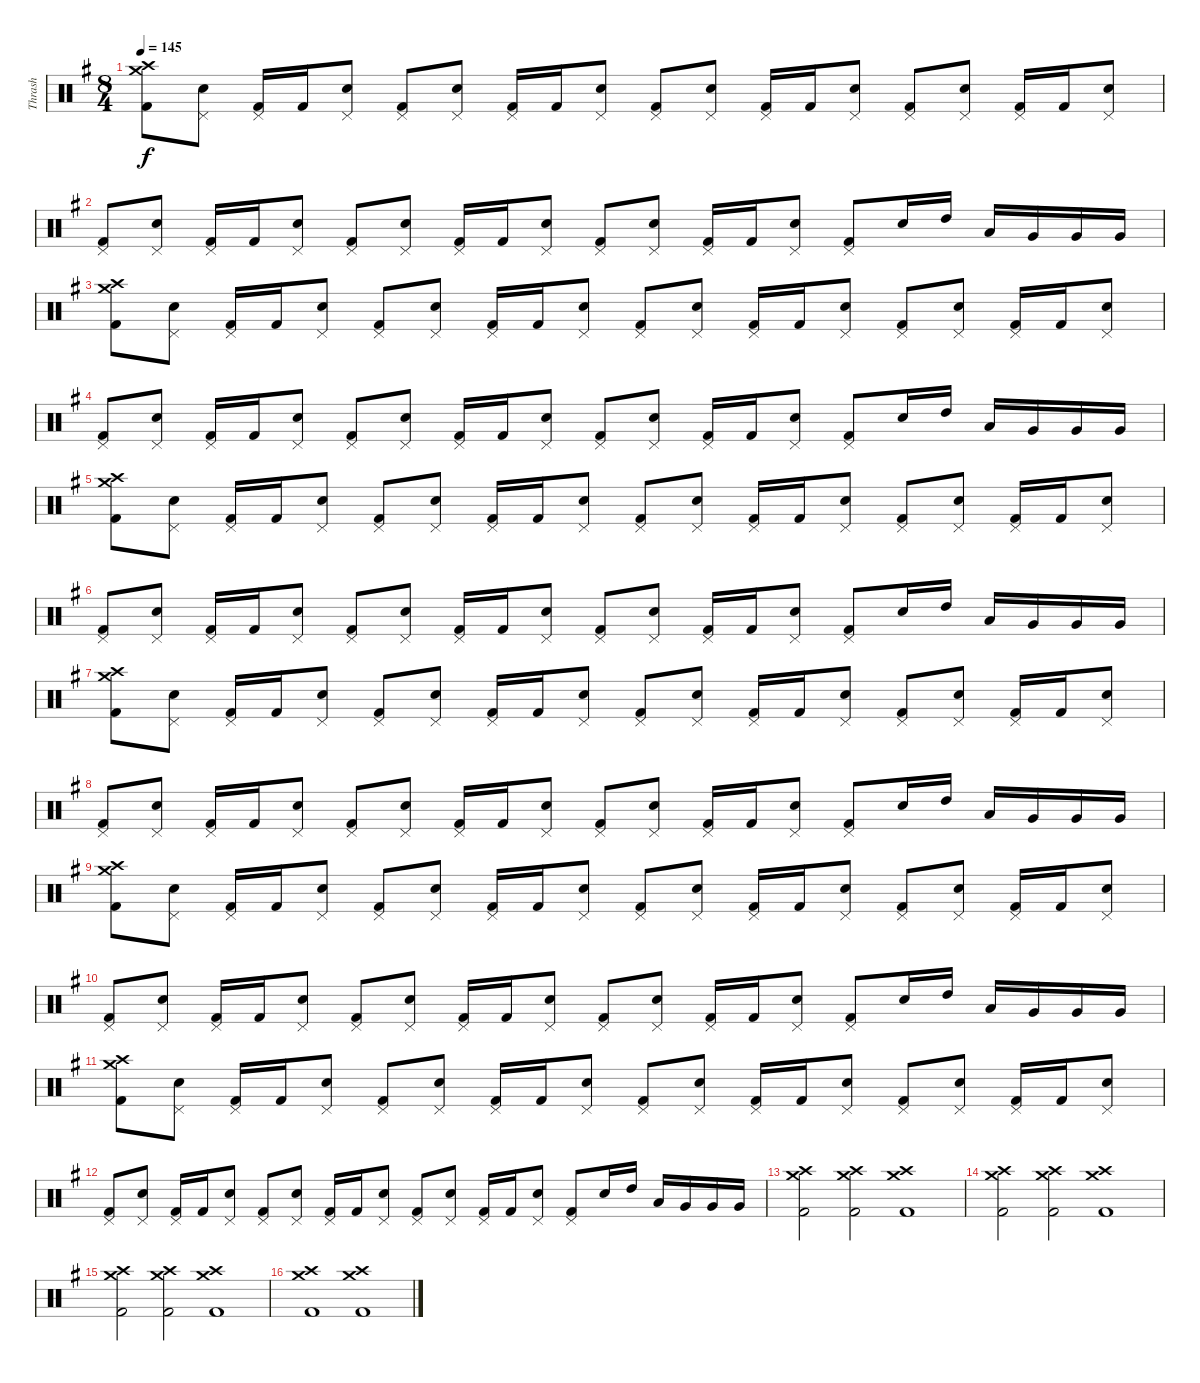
\track ("Thrash" "Thrash") {instrument percussion}
\staff {score}
\articulation defaults
\ts (8 4)
\tempo 145
\clef neutral
\ks eminor
("Crash medium (hit)" "Crash high (hit)" "Kick (hit) 2").8{dy f} ("Pedal Hi-Hat (hit)" "Snare (hit) 2").8 ("Pedal Hi-Hat (hit)" "Kick (hit) 2").16 "Kick (hit) 2".16 ("Pedal Hi-Hat (hit)" "Snare (hit) 2").8 ("Pedal Hi-Hat (hit)" "Kick (hit) 2").8 ("Pedal Hi-Hat (hit)" "Snare (hit) 2").8 ("Pedal Hi-Hat (hit)" "Kick (hit) 2").16 "Kick (hit) 2".16 ("Pedal Hi-Hat (hit)" "Snare (hit) 2").8 ("Pedal Hi-Hat (hit)" "Kick (hit) 2").8 ("Pedal Hi-Hat (hit)" "Snare (hit) 2").8 ("Pedal Hi-Hat (hit)" "Kick (hit) 2").16 "Kick (hit) 2".16 ("Pedal Hi-Hat (hit)" "Snare (hit) 2").8 ("Pedal Hi-Hat (hit)" "Kick (hit) 2").8 ("Pedal Hi-Hat (hit)" "Snare (hit) 2").8 ("Pedal Hi-Hat (hit)" "Kick (hit) 2").16 "Kick (hit) 2".16 ("Pedal Hi-Hat (hit)" "Snare (hit) 2").8 |
("Pedal Hi-Hat (hit)" "Kick (hit) 2").8 ("Pedal Hi-Hat (hit)" "Snare (hit) 2").8 ("Pedal Hi-Hat (hit)" "Kick (hit) 2").16 "Kick (hit) 2".16 ("Pedal Hi-Hat (hit)" "Snare (hit) 2").8 ("Pedal Hi-Hat (hit)" "Kick (hit) 2").8 ("Pedal Hi-Hat (hit)" "Snare (hit) 2").8 ("Pedal Hi-Hat (hit)" "Kick (hit) 2").16 "Kick (hit) 2".16 ("Pedal Hi-Hat (hit)" "Snare (hit) 2").8 ("Pedal Hi-Hat (hit)" "Kick (hit) 2").8 ("Pedal Hi-Hat (hit)" "Snare (hit) 2").8 ("Pedal Hi-Hat (hit)" "Kick (hit) 2").16 "Kick (hit) 2".16 ("Pedal Hi-Hat (hit)" "Snare (hit) 2").8 ("Pedal Hi-Hat (hit)" "Kick (hit) 2").8 "Snare (hit) 2".16 "High Tom (hit)".16 "Low Tom (hit)".16 "Very Low Tom (hit)".16 "Very Low Tom (hit)".16 "Very Low Tom (hit)".16 |
("Crash medium (hit)" "Crash high (hit)" "Kick (hit) 2").8 ("Pedal Hi-Hat (hit)" "Snare (hit) 2").8 ("Pedal Hi-Hat (hit)" "Kick (hit) 2").16 "Kick (hit) 2".16 ("Pedal Hi-Hat (hit)" "Snare (hit) 2").8 ("Pedal Hi-Hat (hit)" "Kick (hit) 2").8 ("Pedal Hi-Hat (hit)" "Snare (hit) 2").8 ("Pedal Hi-Hat (hit)" "Kick (hit) 2").16 "Kick (hit) 2".16 ("Pedal Hi-Hat (hit)" "Snare (hit) 2").8 ("Pedal Hi-Hat (hit)" "Kick (hit) 2").8 ("Pedal Hi-Hat (hit)" "Snare (hit) 2").8 ("Pedal Hi-Hat (hit)" "Kick (hit) 2").16 "Kick (hit) 2".16 ("Pedal Hi-Hat (hit)" "Snare (hit) 2").8 ("Pedal Hi-Hat (hit)" "Kick (hit) 2").8 ("Pedal Hi-Hat (hit)" "Snare (hit) 2").8 ("Pedal Hi-Hat (hit)" "Kick (hit) 2").16 "Kick (hit) 2".16 ("Pedal Hi-Hat (hit)" "Snare (hit) 2").8 |
("Pedal Hi-Hat (hit)" "Kick (hit) 2").8 ("Pedal Hi-Hat (hit)" "Snare (hit) 2").8 ("Pedal Hi-Hat (hit)" "Kick (hit) 2").16 "Kick (hit) 2".16 ("Pedal Hi-Hat (hit)" "Snare (hit) 2").8 ("Pedal Hi-Hat (hit)" "Kick (hit) 2").8 ("Pedal Hi-Hat (hit)" "Snare (hit) 2").8 ("Pedal Hi-Hat (hit)" "Kick (hit) 2").16 "Kick (hit) 2".16 ("Pedal Hi-Hat (hit)" "Snare (hit) 2").8 ("Pedal Hi-Hat (hit)" "Kick (hit) 2").8 ("Pedal Hi-Hat (hit)" "Snare (hit) 2").8 ("Pedal Hi-Hat (hit)" "Kick (hit) 2").16 "Kick (hit) 2".16 ("Pedal Hi-Hat (hit)" "Snare (hit) 2").8 ("Pedal Hi-Hat (hit)" "Kick (hit) 2").8 "Snare (hit) 2".16 "High Tom (hit)".16 "Low Tom (hit)".16 "Very Low Tom (hit)".16 "Very Low Tom (hit)".16 "Very Low Tom (hit)".16 |
("Crash medium (hit)" "Crash high (hit)" "Kick (hit) 2").8 ("Pedal Hi-Hat (hit)" "Snare (hit) 2").8 ("Pedal Hi-Hat (hit)" "Kick (hit) 2").16 "Kick (hit) 2".16 ("Pedal Hi-Hat (hit)" "Snare (hit) 2").8 ("Pedal Hi-Hat (hit)" "Kick (hit) 2").8 ("Pedal Hi-Hat (hit)" "Snare (hit) 2").8 ("Pedal Hi-Hat (hit)" "Kick (hit) 2").16 "Kick (hit) 2".16 ("Pedal Hi-Hat (hit)" "Snare (hit) 2").8 ("Pedal Hi-Hat (hit)" "Kick (hit) 2").8 ("Pedal Hi-Hat (hit)" "Snare (hit) 2").8 ("Pedal Hi-Hat (hit)" "Kick (hit) 2").16 "Kick (hit) 2".16 ("Pedal Hi-Hat (hit)" "Snare (hit) 2").8 ("Pedal Hi-Hat (hit)" "Kick (hit) 2").8 ("Pedal Hi-Hat (hit)" "Snare (hit) 2").8 ("Pedal Hi-Hat (hit)" "Kick (hit) 2").16 "Kick (hit) 2".16 ("Pedal Hi-Hat (hit)" "Snare (hit) 2").8 |
("Pedal Hi-Hat (hit)" "Kick (hit) 2").8 ("Pedal Hi-Hat (hit)" "Snare (hit) 2").8 ("Pedal Hi-Hat (hit)" "Kick (hit) 2").16 "Kick (hit) 2".16 ("Pedal Hi-Hat (hit)" "Snare (hit) 2").8 ("Pedal Hi-Hat (hit)" "Kick (hit) 2").8 ("Pedal Hi-Hat (hit)" "Snare (hit) 2").8 ("Pedal Hi-Hat (hit)" "Kick (hit) 2").16 "Kick (hit) 2".16 ("Pedal Hi-Hat (hit)" "Snare (hit) 2").8 ("Pedal Hi-Hat (hit)" "Kick (hit) 2").8 ("Pedal Hi-Hat (hit)" "Snare (hit) 2").8 ("Pedal Hi-Hat (hit)" "Kick (hit) 2").16 "Kick (hit) 2".16 ("Pedal Hi-Hat (hit)" "Snare (hit) 2").8 ("Pedal Hi-Hat (hit)" "Kick (hit) 2").8 "Snare (hit) 2".16 "High Tom (hit)".16 "Low Tom (hit)".16 "Very Low Tom (hit)".16 "Very Low Tom (hit)".16 "Very Low Tom (hit)".16 |
("Crash medium (hit)" "Crash high (hit)" "Kick (hit) 2").8 ("Pedal Hi-Hat (hit)" "Snare (hit) 2").8 ("Pedal Hi-Hat (hit)" "Kick (hit) 2").16 "Kick (hit) 2".16 ("Pedal Hi-Hat (hit)" "Snare (hit) 2").8 ("Pedal Hi-Hat (hit)" "Kick (hit) 2").8 ("Pedal Hi-Hat (hit)" "Snare (hit) 2").8 ("Pedal Hi-Hat (hit)" "Kick (hit) 2").16 "Kick (hit) 2".16 ("Pedal Hi-Hat (hit)" "Snare (hit) 2").8 ("Pedal Hi-Hat (hit)" "Kick (hit) 2").8 ("Pedal Hi-Hat (hit)" "Snare (hit) 2").8 ("Pedal Hi-Hat (hit)" "Kick (hit) 2").16 "Kick (hit) 2".16 ("Pedal Hi-Hat (hit)" "Snare (hit) 2").8 ("Pedal Hi-Hat (hit)" "Kick (hit) 2").8 ("Pedal Hi-Hat (hit)" "Snare (hit) 2").8 ("Pedal Hi-Hat (hit)" "Kick (hit) 2").16 "Kick (hit) 2".16 ("Pedal Hi-Hat (hit)" "Snare (hit) 2").8 |
("Pedal Hi-Hat (hit)" "Kick (hit) 2").8 ("Pedal Hi-Hat (hit)" "Snare (hit) 2").8 ("Pedal Hi-Hat (hit)" "Kick (hit) 2").16 "Kick (hit) 2".16 ("Pedal Hi-Hat (hit)" "Snare (hit) 2").8 ("Pedal Hi-Hat (hit)" "Kick (hit) 2").8 ("Pedal Hi-Hat (hit)" "Snare (hit) 2").8 ("Pedal Hi-Hat (hit)" "Kick (hit) 2").16 "Kick (hit) 2".16 ("Pedal Hi-Hat (hit)" "Snare (hit) 2").8 ("Pedal Hi-Hat (hit)" "Kick (hit) 2").8 ("Pedal Hi-Hat (hit)" "Snare (hit) 2").8 ("Pedal Hi-Hat (hit)" "Kick (hit) 2").16 "Kick (hit) 2".16 ("Pedal Hi-Hat (hit)" "Snare (hit) 2").8 ("Pedal Hi-Hat (hit)" "Kick (hit) 2").8 "Snare (hit) 2".16 "High Tom (hit)".16 "Low Tom (hit)".16 "Very Low Tom (hit)".16 "Very Low Tom (hit)".16 "Very Low Tom (hit)".16 |
("Crash medium (hit)" "Crash high (hit)" "Kick (hit) 2").8 ("Pedal Hi-Hat (hit)" "Snare (hit) 2").8 ("Pedal Hi-Hat (hit)" "Kick (hit) 2").16 "Kick (hit) 2".16 ("Pedal Hi-Hat (hit)" "Snare (hit) 2").8 ("Pedal Hi-Hat (hit)" "Kick (hit) 2").8 ("Pedal Hi-Hat (hit)" "Snare (hit) 2").8 ("Pedal Hi-Hat (hit)" "Kick (hit) 2").16 "Kick (hit) 2".16 ("Pedal Hi-Hat (hit)" "Snare (hit) 2").8 ("Pedal Hi-Hat (hit)" "Kick (hit) 2").8 ("Pedal Hi-Hat (hit)" "Snare (hit) 2").8 ("Pedal Hi-Hat (hit)" "Kick (hit) 2").16 "Kick (hit) 2".16 ("Pedal Hi-Hat (hit)" "Snare (hit) 2").8 ("Pedal Hi-Hat (hit)" "Kick (hit) 2").8 ("Pedal Hi-Hat (hit)" "Snare (hit) 2").8 ("Pedal Hi-Hat (hit)" "Kick (hit) 2").16 "Kick (hit) 2".16 ("Pedal Hi-Hat (hit)" "Snare (hit) 2").8 |
("Pedal Hi-Hat (hit)" "Kick (hit) 2").8 ("Pedal Hi-Hat (hit)" "Snare (hit) 2").8 ("Pedal Hi-Hat (hit)" "Kick (hit) 2").16 "Kick (hit) 2".16 ("Pedal Hi-Hat (hit)" "Snare (hit) 2").8 ("Pedal Hi-Hat (hit)" "Kick (hit) 2").8 ("Pedal Hi-Hat (hit)" "Snare (hit) 2").8 ("Pedal Hi-Hat (hit)" "Kick (hit) 2").16 "Kick (hit) 2".16 ("Pedal Hi-Hat (hit)" "Snare (hit) 2").8 ("Pedal Hi-Hat (hit)" "Kick (hit) 2").8 ("Pedal Hi-Hat (hit)" "Snare (hit) 2").8 ("Pedal Hi-Hat (hit)" "Kick (hit) 2").16 "Kick (hit) 2".16 ("Pedal Hi-Hat (hit)" "Snare (hit) 2").8 ("Pedal Hi-Hat (hit)" "Kick (hit) 2").8 "Snare (hit) 2".16 "High Tom (hit)".16 "Low Tom (hit)".16 "Very Low Tom (hit)".16 "Very Low Tom (hit)".16 "Very Low Tom (hit)".16 |
("Crash medium (hit)" "Crash high (hit)" "Kick (hit) 2").8 ("Pedal Hi-Hat (hit)" "Snare (hit) 2").8 ("Pedal Hi-Hat (hit)" "Kick (hit) 2").16 "Kick (hit) 2".16 ("Pedal Hi-Hat (hit)" "Snare (hit) 2").8 ("Pedal Hi-Hat (hit)" "Kick (hit) 2").8 ("Pedal Hi-Hat (hit)" "Snare (hit) 2").8 ("Pedal Hi-Hat (hit)" "Kick (hit) 2").16 "Kick (hit) 2".16 ("Pedal Hi-Hat (hit)" "Snare (hit) 2").8 ("Pedal Hi-Hat (hit)" "Kick (hit) 2").8 ("Pedal Hi-Hat (hit)" "Snare (hit) 2").8 ("Pedal Hi-Hat (hit)" "Kick (hit) 2").16 "Kick (hit) 2".16 ("Pedal Hi-Hat (hit)" "Snare (hit) 2").8 ("Pedal Hi-Hat (hit)" "Kick (hit) 2").8 ("Pedal Hi-Hat (hit)" "Snare (hit) 2").8 ("Pedal Hi-Hat (hit)" "Kick (hit) 2").16 "Kick (hit) 2".16 ("Pedal Hi-Hat (hit)" "Snare (hit) 2").8 |
("Pedal Hi-Hat (hit)" "Kick (hit) 2").8 ("Pedal Hi-Hat (hit)" "Snare (hit) 2").8 ("Pedal Hi-Hat (hit)" "Kick (hit) 2").16 "Kick (hit) 2".16 ("Pedal Hi-Hat (hit)" "Snare (hit) 2").8 ("Pedal Hi-Hat (hit)" "Kick (hit) 2").8 ("Pedal Hi-Hat (hit)" "Snare (hit) 2").8 ("Pedal Hi-Hat (hit)" "Kick (hit) 2").16 "Kick (hit) 2".16 ("Pedal Hi-Hat (hit)" "Snare (hit) 2").8 ("Pedal Hi-Hat (hit)" "Kick (hit) 2").8 ("Pedal Hi-Hat (hit)" "Snare (hit) 2").8 ("Pedal Hi-Hat (hit)" "Kick (hit) 2").16 "Kick (hit) 2".16 ("Pedal Hi-Hat (hit)" "Snare (hit) 2").8 ("Pedal Hi-Hat (hit)" "Kick (hit) 2").8 "Snare (hit) 2".16 "High Tom (hit)".16 "Low Tom (hit)".16 "Very Low Tom (hit)".16 "Very Low Tom (hit)".16 "Very Low Tom (hit)".16 |
("Crash medium (hit)" "Crash high (hit)" "Kick (hit) 2").2 ("Crash medium (hit)" "Crash high (hit)" "Kick (hit) 2").2 ("Crash medium (hit)" "Crash high (hit)" "Kick (hit) 2").1 |
("Crash medium (hit)" "Crash high (hit)" "Kick (hit) 2").2 ("Crash medium (hit)" "Crash high (hit)" "Kick (hit) 2").2 ("Crash medium (hit)" "Crash high (hit)" "Kick (hit) 2").1 |
("Crash medium (hit)" "Crash high (hit)" "Kick (hit) 2").2 ("Crash medium (hit)" "Crash high (hit)" "Kick (hit) 2").2 ("Crash medium (hit)" "Crash high (hit)" "Kick (hit) 2").1 |
("Crash medium (hit)" "Crash high (hit)" "Kick (hit) 2").1 ("Crash medium (hit)" "Crash high (hit)" "Kick (hit) 2").1
